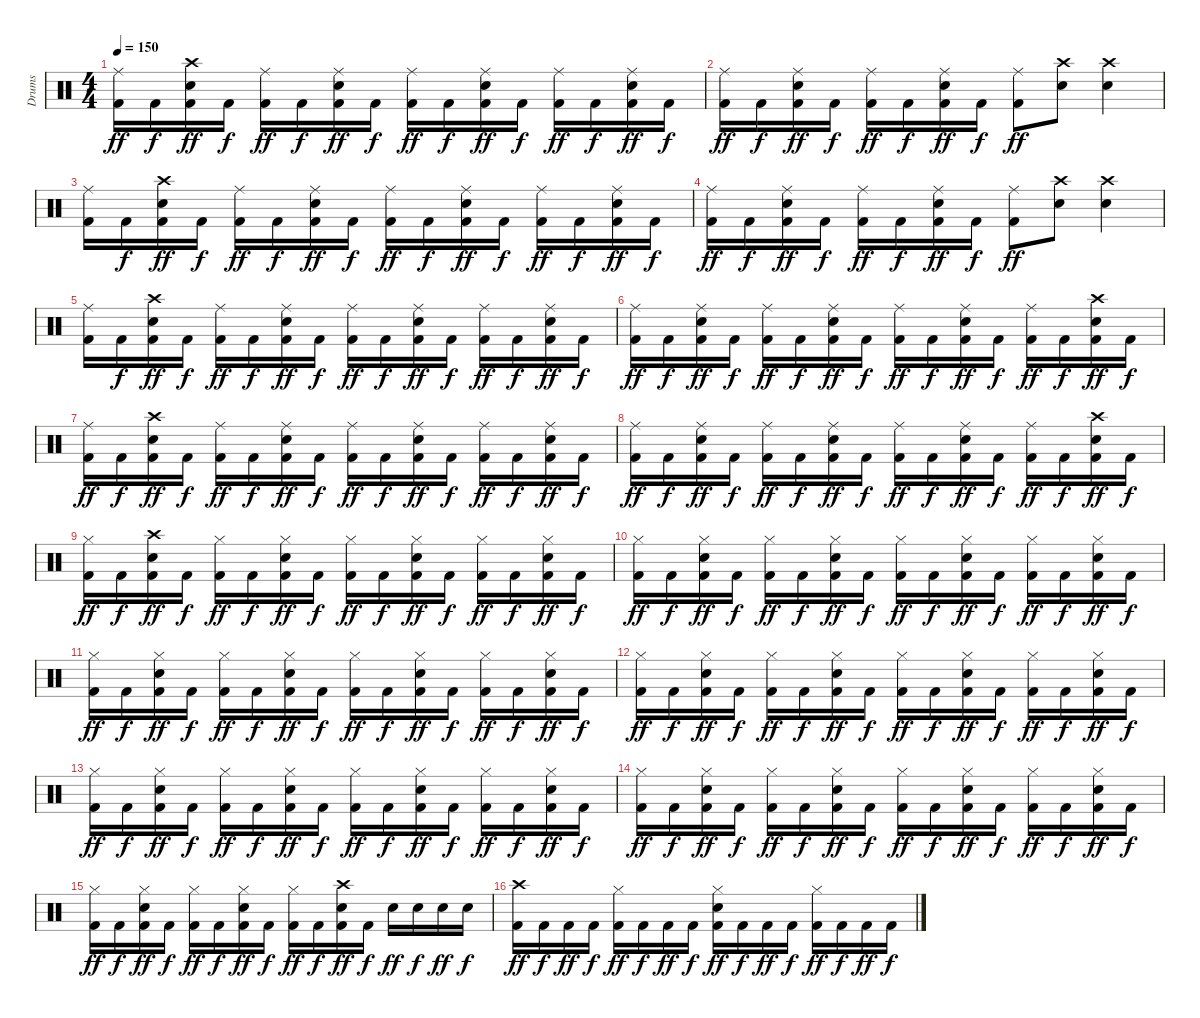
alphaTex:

\track ("Drums" "Drums") {instrument percussion}
\staff {score}
\articulation defaults
\ts (4 4)
\tempo 150
\clef neutral
\ks c
("Ride (middle)" "Kick (hit) 2").16{dy ff} "Kick (hit) 2".16{dy f} ("Kick (hit) 2" "Crash high (hit)" "Snare (hit) 2").16{dy ff} "Kick (hit) 2".16{dy f} ("Ride (middle)" "Kick (hit) 2").16{dy ff} "Kick (hit) 2".16{dy f} ("Ride (middle)" "Snare (hit) 2" "Kick (hit) 2").16{dy ff} "Kick (hit) 2".16{dy f} ("Ride (middle)" "Kick (hit) 2").16{dy ff} "Kick (hit) 2".16{dy f} ("Ride (middle)" "Snare (hit) 2" "Kick (hit) 2").16{dy ff} "Kick (hit) 2".16{dy f} ("Ride (middle)" "Kick (hit) 2").16{dy ff} "Kick (hit) 2".16{dy f} ("Ride (middle)" "Snare (hit) 2" "Kick (hit) 2").16{dy ff} "Kick (hit) 2".16{dy f} |
("Ride (middle)" "Kick (hit) 2").16{dy ff} "Kick (hit) 2".16{dy f} ("Ride (middle)" "Snare (hit) 2" "Kick (hit) 2").16{dy ff} "Kick (hit) 2".16{dy f} ("Ride (middle)" "Kick (hit) 2").16{dy ff} "Kick (hit) 2".16{dy f} ("Ride (middle)" "Snare (hit) 2" "Kick (hit) 2").16{dy ff} "Kick (hit) 2".16{dy f} ("Kick (hit) 2" "Ride (middle)").8{dy ff} ("Crash high (hit)" "Snare (hit) 2").8 ("Crash high (hit)" "Snare (hit) 2").4 |
("Ride (middle)" "Kick (hit) 2").16 "Kick (hit) 2".16{dy f} ("Kick (hit) 2" "Crash high (hit)" "Snare (hit) 2").16{dy ff} "Kick (hit) 2".16{dy f} ("Ride (middle)" "Kick (hit) 2").16{dy ff} "Kick (hit) 2".16{dy f} ("Ride (middle)" "Snare (hit) 2" "Kick (hit) 2").16{dy ff} "Kick (hit) 2".16{dy f} ("Ride (middle)" "Kick (hit) 2").16{dy ff} "Kick (hit) 2".16{dy f} ("Ride (middle)" "Snare (hit) 2" "Kick (hit) 2").16{dy ff} "Kick (hit) 2".16{dy f} ("Ride (middle)" "Kick (hit) 2").16{dy ff} "Kick (hit) 2".16{dy f} ("Ride (middle)" "Snare (hit) 2" "Kick (hit) 2").16{dy ff} "Kick (hit) 2".16{dy f} |
("Ride (middle)" "Kick (hit) 2").16{dy ff} "Kick (hit) 2".16{dy f} ("Ride (middle)" "Snare (hit) 2" "Kick (hit) 2").16{dy ff} "Kick (hit) 2".16{dy f} ("Ride (middle)" "Kick (hit) 2").16{dy ff} "Kick (hit) 2".16{dy f} ("Ride (middle)" "Snare (hit) 2" "Kick (hit) 2").16{dy ff} "Kick (hit) 2".16{dy f} ("Kick (hit) 2" "Ride (middle)").8{dy ff} ("Crash high (hit)" "Snare (hit) 2").8 ("Crash high (hit)" "Snare (hit) 2").4 |
("Ride (middle)" "Kick (hit) 2").16 "Kick (hit) 2".16{dy f} ("Kick (hit) 2" "Crash high (hit)" "Snare (hit) 2").16{dy ff} "Kick (hit) 2".16{dy f} ("Ride (middle)" "Kick (hit) 2").16{dy ff} "Kick (hit) 2".16{dy f} ("Ride (middle)" "Snare (hit) 2" "Kick (hit) 2").16{dy ff} "Kick (hit) 2".16{dy f} ("Ride (middle)" "Kick (hit) 2").16{dy ff} "Kick (hit) 2".16{dy f} ("Ride (middle)" "Snare (hit) 2" "Kick (hit) 2").16{dy ff} "Kick (hit) 2".16{dy f} ("Ride (middle)" "Kick (hit) 2").16{dy ff} "Kick (hit) 2".16{dy f} ("Ride (middle)" "Snare (hit) 2" "Kick (hit) 2").16{dy ff} "Kick (hit) 2".16{dy f} |
("Ride (middle)" "Kick (hit) 2").16{dy ff} "Kick (hit) 2".16{dy f} ("Ride (middle)" "Snare (hit) 2" "Kick (hit) 2").16{dy ff} "Kick (hit) 2".16{dy f} ("Ride (middle)" "Kick (hit) 2").16{dy ff} "Kick (hit) 2".16{dy f} ("Ride (middle)" "Snare (hit) 2" "Kick (hit) 2").16{dy ff} "Kick (hit) 2".16{dy f} ("Ride (middle)" "Kick (hit) 2").16{dy ff} "Kick (hit) 2".16{dy f} ("Ride (middle)" "Snare (hit) 2" "Kick (hit) 2").16{dy ff} "Kick (hit) 2".16{dy f} ("Ride (middle)" "Kick (hit) 2").16{dy ff} "Kick (hit) 2".16{dy f} ("Kick (hit) 2" "Crash high (hit)" "Snare (hit) 2").16{dy ff} "Kick (hit) 2".16{dy f} |
("Ride (middle)" "Kick (hit) 2").16{dy ff} "Kick (hit) 2".16{dy f} ("Kick (hit) 2" "Crash high (hit)" "Snare (hit) 2").16{dy ff} "Kick (hit) 2".16{dy f} ("Ride (middle)" "Kick (hit) 2").16{dy ff} "Kick (hit) 2".16{dy f} ("Ride (middle)" "Snare (hit) 2" "Kick (hit) 2").16{dy ff} "Kick (hit) 2".16{dy f} ("Ride (middle)" "Kick (hit) 2").16{dy ff} "Kick (hit) 2".16{dy f} ("Ride (middle)" "Snare (hit) 2" "Kick (hit) 2").16{dy ff} "Kick (hit) 2".16{dy f} ("Ride (middle)" "Kick (hit) 2").16{dy ff} "Kick (hit) 2".16{dy f} ("Ride (middle)" "Snare (hit) 2" "Kick (hit) 2").16{dy ff} "Kick (hit) 2".16{dy f} |
("Ride (middle)" "Kick (hit) 2").16{dy ff} "Kick (hit) 2".16{dy f} ("Ride (middle)" "Snare (hit) 2" "Kick (hit) 2").16{dy ff} "Kick (hit) 2".16{dy f} ("Ride (middle)" "Kick (hit) 2").16{dy ff} "Kick (hit) 2".16{dy f} ("Ride (middle)" "Snare (hit) 2" "Kick (hit) 2").16{dy ff} "Kick (hit) 2".16{dy f} ("Ride (middle)" "Kick (hit) 2").16{dy ff} "Kick (hit) 2".16{dy f} ("Ride (middle)" "Snare (hit) 2" "Kick (hit) 2").16{dy ff} "Kick (hit) 2".16{dy f} ("Ride (middle)" "Kick (hit) 2").16{dy ff} "Kick (hit) 2".16{dy f} ("Kick (hit) 2" "Crash high (hit)" "Snare (hit) 2").16{dy ff} "Kick (hit) 2".16{dy f} |
("Hi-Hat (closed)" "Kick (hit) 2").16{dy ff} "Kick (hit) 2".16{dy f} ("Kick (hit) 2" "Crash high (hit)" "Snare (hit) 2").16{dy ff} "Kick (hit) 2".16{dy f} ("Hi-Hat (closed)" "Kick (hit) 2").16{dy ff} "Kick (hit) 2".16{dy f} ("Hi-Hat (closed)" "Snare (hit) 2" "Kick (hit) 2").16{dy ff} "Kick (hit) 2".16{dy f} ("Hi-Hat (closed)" "Kick (hit) 2").16{dy ff} "Kick (hit) 2".16{dy f} ("Hi-Hat (closed)" "Snare (hit) 2" "Kick (hit) 2").16{dy ff} "Kick (hit) 2".16{dy f} ("Hi-Hat (closed)" "Kick (hit) 2").16{dy ff} "Kick (hit) 2".16{dy f} ("Hi-Hat (closed)" "Snare (hit) 2" "Kick (hit) 2").16{dy ff} "Kick (hit) 2".16{dy f} |
("Hi-Hat (closed)" "Kick (hit) 2").16{dy ff} "Kick (hit) 2".16{dy f} ("Hi-Hat (closed)" "Snare (hit) 2" "Kick (hit) 2").16{dy ff} "Kick (hit) 2".16{dy f} ("Hi-Hat (closed)" "Kick (hit) 2").16{dy ff} "Kick (hit) 2".16{dy f} ("Hi-Hat (closed)" "Snare (hit) 2" "Kick (hit) 2").16{dy ff} "Kick (hit) 2".16{dy f} ("Hi-Hat (closed)" "Kick (hit) 2").16{dy ff} "Kick (hit) 2".16{dy f} ("Hi-Hat (closed)" "Snare (hit) 2" "Kick (hit) 2").16{dy ff} "Kick (hit) 2".16{dy f} ("Hi-Hat (closed)" "Kick (hit) 2").16{dy ff} "Kick (hit) 2".16{dy f} ("Hi-Hat (closed)" "Snare (hit) 2" "Kick (hit) 2").16{dy ff} "Kick (hit) 2".16{dy f} |
("Hi-Hat (closed)" "Kick (hit) 2").16{dy ff} "Kick (hit) 2".16{dy f} ("Hi-Hat (closed)" "Snare (hit) 2" "Kick (hit) 2").16{dy ff} "Kick (hit) 2".16{dy f} ("Hi-Hat (closed)" "Kick (hit) 2").16{dy ff} "Kick (hit) 2".16{dy f} ("Hi-Hat (closed)" "Snare (hit) 2" "Kick (hit) 2").16{dy ff} "Kick (hit) 2".16{dy f} ("Hi-Hat (closed)" "Kick (hit) 2").16{dy ff} "Kick (hit) 2".16{dy f} ("Hi-Hat (closed)" "Snare (hit) 2" "Kick (hit) 2").16{dy ff} "Kick (hit) 2".16{dy f} ("Hi-Hat (closed)" "Kick (hit) 2").16{dy ff} "Kick (hit) 2".16{dy f} ("Hi-Hat (closed)" "Snare (hit) 2" "Kick (hit) 2").16{dy ff} "Kick (hit) 2".16{dy f} |
("Hi-Hat (closed)" "Kick (hit) 2").16{dy ff} "Kick (hit) 2".16{dy f} ("Hi-Hat (closed)" "Snare (hit) 2" "Kick (hit) 2").16{dy ff} "Kick (hit) 2".16{dy f} ("Hi-Hat (closed)" "Kick (hit) 2").16{dy ff} "Kick (hit) 2".16{dy f} ("Hi-Hat (closed)" "Snare (hit) 2" "Kick (hit) 2").16{dy ff} "Kick (hit) 2".16{dy f} ("Hi-Hat (closed)" "Kick (hit) 2").16{dy ff} "Kick (hit) 2".16{dy f} ("Hi-Hat (closed)" "Snare (hit) 2" "Kick (hit) 2").16{dy ff} "Kick (hit) 2".16{dy f} ("Hi-Hat (closed)" "Kick (hit) 2").16{dy ff} "Kick (hit) 2".16{dy f} ("Hi-Hat (closed)" "Snare (hit) 2" "Kick (hit) 2").16{dy ff} "Kick (hit) 2".16{dy f} |
("Hi-Hat (closed)" "Kick (hit) 2").16{dy ff} "Kick (hit) 2".16{dy f} ("Hi-Hat (closed)" "Snare (hit) 2" "Kick (hit) 2").16{dy ff} "Kick (hit) 2".16{dy f} ("Hi-Hat (closed)" "Kick (hit) 2").16{dy ff} "Kick (hit) 2".16{dy f} ("Hi-Hat (closed)" "Snare (hit) 2" "Kick (hit) 2").16{dy ff} "Kick (hit) 2".16{dy f} ("Hi-Hat (closed)" "Kick (hit) 2").16{dy ff} "Kick (hit) 2".16{dy f} ("Hi-Hat (closed)" "Snare (hit) 2" "Kick (hit) 2").16{dy ff} "Kick (hit) 2".16{dy f} ("Hi-Hat (closed)" "Kick (hit) 2").16{dy ff} "Kick (hit) 2".16{dy f} ("Hi-Hat (closed)" "Snare (hit) 2" "Kick (hit) 2").16{dy ff} "Kick (hit) 2".16{dy f} |
("Hi-Hat (closed)" "Kick (hit) 2").16{dy ff} "Kick (hit) 2".16{dy f} ("Hi-Hat (closed)" "Snare (hit) 2" "Kick (hit) 2").16{dy ff} "Kick (hit) 2".16{dy f} ("Hi-Hat (closed)" "Kick (hit) 2").16{dy ff} "Kick (hit) 2".16{dy f} ("Hi-Hat (closed)" "Snare (hit) 2" "Kick (hit) 2").16{dy ff} "Kick (hit) 2".16{dy f} ("Hi-Hat (closed)" "Kick (hit) 2").16{dy ff} "Kick (hit) 2".16{dy f} ("Hi-Hat (closed)" "Snare (hit) 2" "Kick (hit) 2").16{dy ff} "Kick (hit) 2".16{dy f} ("Hi-Hat (closed)" "Kick (hit) 2").16{dy ff} "Kick (hit) 2".16{dy f} ("Hi-Hat (closed)" "Snare (hit) 2" "Kick (hit) 2").16{dy ff} "Kick (hit) 2".16{dy f} |
("Hi-Hat (closed)" "Kick (hit) 2").16{dy ff} "Kick (hit) 2".16{dy f} ("Hi-Hat (closed)" "Snare (hit) 2" "Kick (hit) 2").16{dy ff} "Kick (hit) 2".16{dy f} ("Hi-Hat (closed)" "Kick (hit) 2").16{dy ff} "Kick (hit) 2".16{dy f} ("Hi-Hat (closed)" "Snare (hit) 2" "Kick (hit) 2").16{dy ff} "Kick (hit) 2".16{dy f} ("Hi-Hat (closed)" "Kick (hit) 2").16{dy ff} "Kick (hit) 2".16{dy f} ("Kick (hit) 2" "Crash high (hit)" "Snare (hit) 2").16{dy ff} "Kick (hit) 2".16{dy f} "Snare (hit) 2".16{dy ff} "Snare (hit) 2".16{dy f} "Snare (hit) 2".16{dy ff} "Snare (hit) 2".16{dy f} |
("Crash high (hit)" "Kick (hit) 2").16{dy ff} "Kick (hit) 2".16{dy f} "Kick (hit) 2".16{dy ff} "Kick (hit) 2".16{dy f} ("Hi-Hat (closed)" "Kick (hit) 2").16{dy ff} "Kick (hit) 2".16{dy f} "Kick (hit) 2".16{dy ff} "Kick (hit) 2".16{dy f} ("Kick (hit) 2" "Snare (hit) 2" "Hi-Hat (closed)").16{dy ff} "Kick (hit) 2".16{dy f} "Kick (hit) 2".16{dy ff} "Kick (hit) 2".16{dy f} ("Hi-Hat (closed)" "Kick (hit) 2").16{dy ff} "Kick (hit) 2".16{dy f} "Kick (hit) 2".16{dy ff} "Kick (hit) 2".16{dy f}
